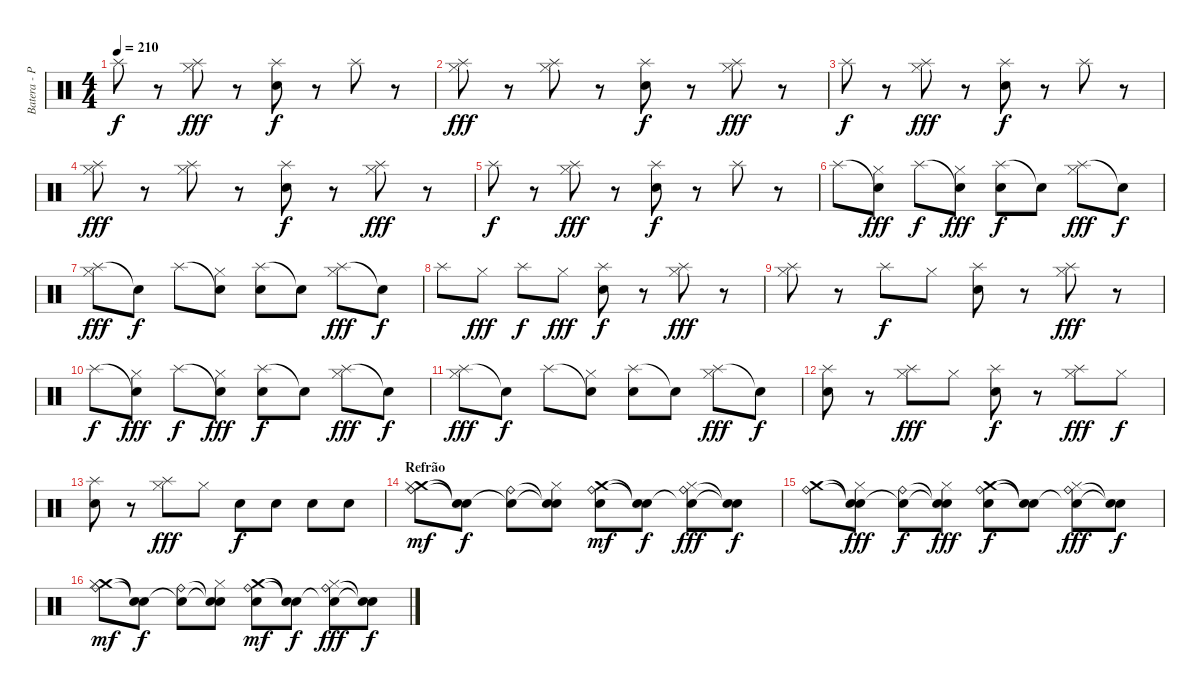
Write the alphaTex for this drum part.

\track ("Batera - Pelado" "Batera - P") {instrument percussion}
\staff {score}
\articulation defaults
\ts (4 4)
\tempo 210
\clef neutral
\ks c "Splash (hit)".8{dy f}
r.8 ("Splash (hit)" "Hi-Hat (closed)").8{dy fff} r.8 ("Splash (hit)" "Electric Snare (hit)").8{dy f} r.8 "Splash (hit)".8 r.8 |
("Splash (hit)" "Hi-Hat (closed)").8{dy fff} r.8 ("Splash (hit)" "Hi-Hat (closed)").8 r.8 ("Splash (hit)" "Electric Snare (hit)").8{dy f} r.8 ("Splash (hit)" "Hi-Hat (closed)").8{dy fff} r.8 |
"Splash (hit)".8{dy f} r.8 ("Splash (hit)" "Hi-Hat (closed)").8{dy fff} r.8 ("Splash (hit)" "Electric Snare (hit)").8{dy f} r.8 "Splash (hit)".8 r.8 |
("Splash (hit)" "Hi-Hat (closed)").8{dy fff} r.8 ("Splash (hit)" "Hi-Hat (closed)").8 r.8 ("Splash (hit)" "Electric Snare (hit)").8{dy f} r.8 ("Splash (hit)" "Hi-Hat (closed)").8{dy fff} r.8 |
"Splash (hit)".8{dy f} r.8 ("Splash (hit)" "Hi-Hat (closed)").8{dy fff} r.8 ("Splash (hit)" "Electric Snare (hit)").8{dy f} r.8 "Splash (hit)".8 r.8 |
"Splash (hit)".8 ("Snare (hit)"{t} "Hi-Hat (closed)").8{dy fff} "Splash (hit)".8{dy f} ("Snare (hit)"{t} "Hi-Hat (closed)").8{dy fff} ("Splash (hit)" "Electric Snare (hit)").8{dy f} "Snare (hit)"{t}.8 ("Splash (hit)" "Hi-Hat (closed)").8{dy fff} "Snare (hit)"{t}.8{dy f} |
("Splash (hit)" "Hi-Hat (closed)").8{dy fff} "Snare (hit)"{t}.8{dy f} "Splash (hit)".8 ("Snare (hit)"{t} "Hi-Hat (closed)").8 ("Splash (hit)" "Electric Snare (hit)").8 "Snare (hit)"{t}.8 ("Splash (hit)" "Hi-Hat (closed)").8{dy fff} "Snare (hit)"{t}.8{dy f} |
"Splash (hit)".8 "Hi-Hat (closed)".8{dy fff} "Splash (hit)".8{dy f} "Hi-Hat (closed)".8{dy fff} ("Splash (hit)" "Electric Snare (hit)").8{dy f} r.8 ("Splash (hit)" "Hi-Hat (closed)").8{dy fff} r.8 |
("Splash (hit)" "Hi-Hat (closed)").8 r.8 "Splash (hit)".8{dy f} "Hi-Hat (closed)".8 ("Splash (hit)" "Electric Snare (hit)").8 r.8 ("Splash (hit)" "Hi-Hat (closed)").8{dy fff} r.8 |
"Splash (hit)".8{dy f} ("Snare (hit)"{t} "Hi-Hat (closed)").8{dy fff} "Splash (hit)".8{dy f} ("Snare (hit)"{t} "Hi-Hat (closed)").8{dy fff} ("Splash (hit)" "Electric Snare (hit)").8{dy f} "Snare (hit)"{t}.8 ("Splash (hit)" "Hi-Hat (closed)").8{dy fff} "Snare (hit)"{t}.8{dy f} |
("Splash (hit)" "Hi-Hat (closed)").8{dy fff} "Snare (hit)"{t}.8{dy f} "Splash (hit)".8 ("Snare (hit)"{t} "Hi-Hat (closed)").8 ("Splash (hit)" "Electric Snare (hit)").8 "Snare (hit)"{t}.8 ("Splash (hit)" "Hi-Hat (closed)").8{dy fff} "Snare (hit)"{t}.8{dy f} |
("Splash (hit)" "Electric Snare (hit)").8 r.8 ("Splash (hit)" "Hi-Hat (closed)").8{dy fff} "Hi-Hat (closed)".8 ("Splash (hit)" "Electric Snare (hit)").8{dy f} r.8 ("Splash (hit)" "Hi-Hat (closed)").8{dy fff} "Hi-Hat (closed)".8{dy f} |
("Splash (hit)" "Electric Snare (hit)").8 r.8 ("Splash (hit)" "Hi-Hat (closed)").8{dy fff} "Hi-Hat (closed)".8 "Electric Snare (hit)".8{dy f} "Electric Snare (hit)".8 "Electric Snare (hit)".8 "Electric Snare (hit)".8 |
\section ("" "Refrão")
("Crash medium (hit)" "Ride (bell)" "Hi-Hat (closed)").8{dy mf} ("Snare (hit)"{t} "Snare (hit)"{t}).8{dy f} ("Snare (hit)"{t} "Ride (bell)").8 ("Snare (hit)"{t} "Snare (hit)"{t} "Hi-Hat (closed)").8 ("Crash medium (hit)" "Ride (bell)" "Electric Snare (hit)").8{dy mf} ("Snare (hit)"{t} "Snare (hit)"{t}).8{dy f} ("Snare (hit)"{t} "Ride (bell)" "Hi-Hat (closed)").8{dy fff} ("Snare (hit)"{t} "Snare (hit)"{t}).8{dy f} |
("Crash medium (hit)" "Ride (bell)").8 ("Snare (hit)"{t} "Snare (hit)"{t} "Hi-Hat (closed)").8{dy fff} ("Snare (hit)"{t} "Ride (bell)").8{dy f} ("Snare (hit)"{t} "Snare (hit)"{t} "Hi-Hat (closed)").8{dy fff} ("Crash medium (hit)" "Ride (bell)" "Electric Snare (hit)").8{dy f} ("Snare (hit)"{t} "Snare (hit)"{t}).8 ("Snare (hit)"{t} "Ride (bell)" "Hi-Hat (closed)").8{dy fff} ("Snare (hit)"{t} "Snare (hit)"{t}).8{dy f} |
("Crash medium (hit)" "Ride (bell)" "Hi-Hat (closed)").8{dy mf} ("Snare (hit)"{t} "Snare (hit)"{t}).8{dy f} ("Snare (hit)"{t} "Ride (bell)").8 ("Snare (hit)"{t} "Snare (hit)"{t} "Hi-Hat (closed)").8 ("Crash medium (hit)" "Ride (bell)" "Electric Snare (hit)").8{dy mf} ("Snare (hit)"{t} "Snare (hit)"{t}).8{dy f} ("Snare (hit)"{t} "Ride (bell)" "Hi-Hat (closed)").8{dy fff} ("Snare (hit)"{t} "Snare (hit)"{t}).8{dy f}
